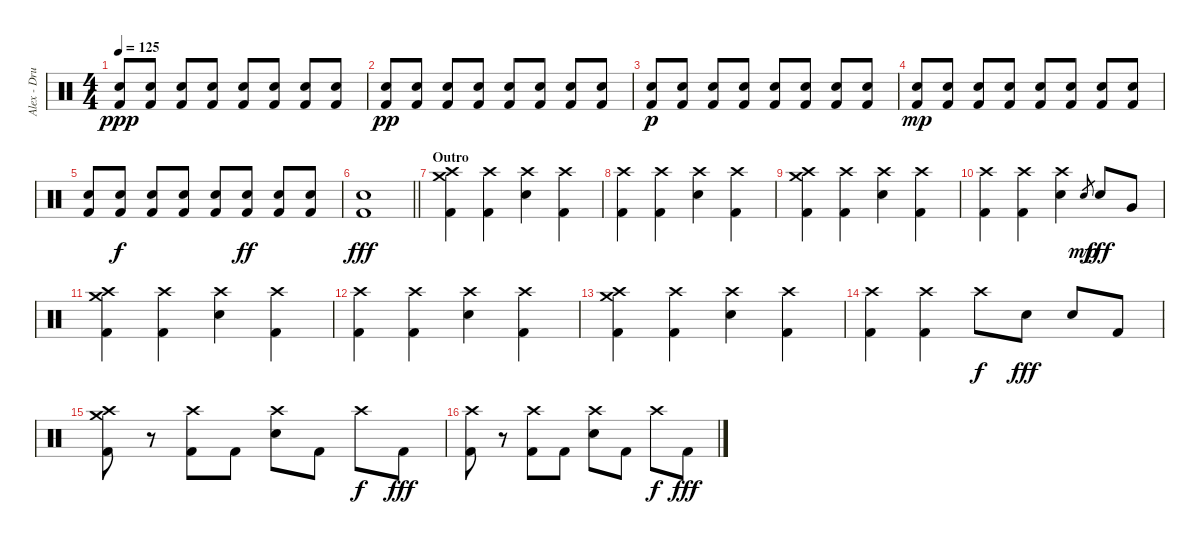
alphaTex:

\track ("Alex - Drums" "Alex - Dru") {instrument percussion}
\staff {score}
\articulation defaults
\ts (4 4)
\tempo 125
\clef neutral
\ks c
("Electric Snare (hit)" "Kick (hit) 2").8{dy ppp} ("Electric Snare (hit)" "Kick (hit) 2").8 ("Electric Snare (hit)" "Kick (hit) 2").8 ("Electric Snare (hit)" "Kick (hit) 2").8 ("Electric Snare (hit)" "Kick (hit) 2").8 ("Electric Snare (hit)" "Kick (hit) 2").8 ("Electric Snare (hit)" "Kick (hit) 2").8 ("Electric Snare (hit)" "Kick (hit) 2").8 |
("Electric Snare (hit)" "Kick (hit) 2").8{dy pp} ("Electric Snare (hit)" "Kick (hit) 2").8 ("Electric Snare (hit)" "Kick (hit) 2").8 ("Electric Snare (hit)" "Kick (hit) 2").8 ("Electric Snare (hit)" "Kick (hit) 2").8 ("Electric Snare (hit)" "Kick (hit) 2").8 ("Electric Snare (hit)" "Kick (hit) 2").8 ("Electric Snare (hit)" "Kick (hit) 2").8 |
("Electric Snare (hit)" "Kick (hit) 2").8{dy p} ("Electric Snare (hit)" "Kick (hit) 2").8 ("Electric Snare (hit)" "Kick (hit) 2").8 ("Electric Snare (hit)" "Kick (hit) 2").8 ("Electric Snare (hit)" "Kick (hit) 2").8 ("Electric Snare (hit)" "Kick (hit) 2").8 ("Electric Snare (hit)" "Kick (hit) 2").8 ("Electric Snare (hit)" "Kick (hit) 2").8 |
("Electric Snare (hit)" "Kick (hit) 2").8{dy mp} ("Electric Snare (hit)" "Kick (hit) 2").8 ("Electric Snare (hit)" "Kick (hit) 2").8 ("Electric Snare (hit)" "Kick (hit) 2").8 ("Electric Snare (hit)" "Kick (hit) 2").8 ("Electric Snare (hit)" "Kick (hit) 2").8 ("Electric Snare (hit)" "Kick (hit) 2").8 ("Electric Snare (hit)" "Kick (hit) 2").8 |
("Electric Snare (hit)" "Kick (hit) 2").8 ("Electric Snare (hit)" "Kick (hit) 2").8{dy f} ("Electric Snare (hit)" "Kick (hit) 2").8 ("Electric Snare (hit)" "Kick (hit) 2").8 ("Electric Snare (hit)" "Kick (hit) 2").8 ("Electric Snare (hit)" "Kick (hit) 2").8{dy ff} ("Electric Snare (hit)" "Kick (hit) 2").8 ("Electric Snare (hit)" "Kick (hit) 2").8 |
\barLineRight lightlight
("Electric Snare (hit)" "Kick (hit) 2").1{dy fff} |
\section ("" "Outro")
("Crash high (hit)" "Crash medium (hit)" "Kick (hit) 2").4 ("Crash high (hit)" "Kick (hit) 2").4 ("Crash high (hit)" "Electric Snare (hit)").4 ("Crash high (hit)" "Kick (hit) 2").4 |
("Crash high (hit)" "Kick (hit) 2").4 ("Crash high (hit)" "Kick (hit) 2").4 ("Crash high (hit)" "Electric Snare (hit)").4 ("Crash high (hit)" "Kick (hit) 2").4 |
("Crash high (hit)" "Crash medium (hit)" "Kick (hit) 2").4 ("Crash high (hit)" "Kick (hit) 2").4 ("Crash high (hit)" "Electric Snare (hit)").4 ("Crash high (hit)" "Kick (hit) 2").4 |
("Crash high (hit)" "Kick (hit) 2").4 ("Crash high (hit)" "Kick (hit) 2").4 ("Crash high (hit)" "Electric Snare (hit)").4 "Electric Snare (hit)".8{gr dy mp} "Electric Snare (hit)".8{dy fff} "Very Low Tom (hit)".8 |
("Crash high (hit)" "Crash medium (hit)" "Kick (hit) 2").4 ("Crash high (hit)" "Kick (hit) 2").4 ("Crash high (hit)" "Electric Snare (hit)").4 ("Crash high (hit)" "Kick (hit) 2").4 |
("Crash high (hit)" "Kick (hit) 2").4 ("Crash high (hit)" "Kick (hit) 2").4 ("Crash high (hit)" "Electric Snare (hit)").4 ("Crash high (hit)" "Kick (hit) 2").4 |
("Crash high (hit)" "Crash medium (hit)" "Kick (hit) 2").4 ("Crash high (hit)" "Kick (hit) 2").4 ("Crash high (hit)" "Electric Snare (hit)").4 ("Crash high (hit)" "Kick (hit) 2").4 |
("Crash high (hit)" "Kick (hit) 2").4 ("Crash high (hit)" "Kick (hit) 2").4 "Crash high (hit)".8{dy f} "Electric Snare (hit)".8{dy fff} "Electric Snare (hit)".8 "Kick (hit) 2".8 |
("Crash high (hit)" "Crash medium (hit)" "Kick (hit) 2").8 r.8 ("Crash high (hit)" "Kick (hit) 2").8 "Kick (hit) 2".8 ("Crash high (hit)" "Electric Snare (hit)").8 "Kick (hit) 2".8 "Crash high (hit)".8{dy f} "Kick (hit) 2".8{dy fff} |
("Crash high (hit)" "Kick (hit) 2").8 r.8 ("Crash high (hit)" "Kick (hit) 2").8 "Kick (hit) 2".8 ("Crash high (hit)" "Electric Snare (hit)").8 "Kick (hit) 2".8 "Crash high (hit)".8{dy f} "Kick (hit) 2".8{dy fff}
